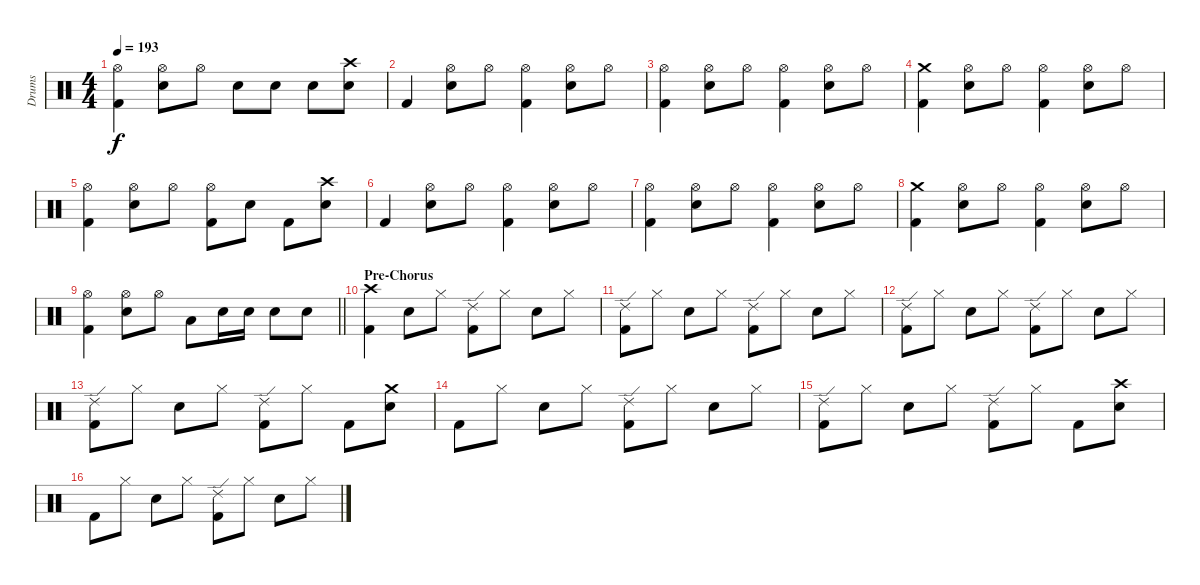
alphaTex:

\track ("Drums" "Drums") {instrument percussion}
\staff {score}
\articulation defaults
\ts (4 4)
\tempo 193
\clef neutral
\ks c
("Hi-Hat (open)" "Kick (hit) 2").4{dy f} ("Hi-Hat (open)" "Snare (hit) 2").8 "Hi-Hat (open)".8 "Snare (hit) 2".8 "Snare (hit) 2".8 "Snare (hit) 2".8 ("Crash high (hit)" "Snare (hit) 2").8 |
"Kick (hit) 2".4 ("Hi-Hat (open)" "Snare (hit) 2").8 "Hi-Hat (open)".8 ("Hi-Hat (open)" "Kick (hit) 2").4 ("Hi-Hat (open)" "Snare (hit) 2").8 "Hi-Hat (open)".8 |
("Hi-Hat (open)" "Kick (hit) 2").4 ("Hi-Hat (open)" "Snare (hit) 2").8 "Hi-Hat (open)".8 ("Hi-Hat (open)" "Kick (hit) 2").4 ("Hi-Hat (open)" "Snare (hit) 2").8 "Hi-Hat (open)".8 |
("Crash medium (hit)" "Kick (hit) 2").4 ("Hi-Hat (open)" "Snare (hit) 2").8 "Hi-Hat (open)".8 ("Hi-Hat (open)" "Kick (hit) 2").4 ("Hi-Hat (open)" "Snare (hit) 2").8 "Hi-Hat (open)".8 |
("Hi-Hat (open)" "Kick (hit) 2").4 ("Hi-Hat (open)" "Snare (hit) 2").8 "Hi-Hat (open)".8 ("Hi-Hat (open)" "Kick (hit) 2").8 "Snare (hit) 2".8 "Kick (hit) 2".8 ("Crash high (hit)" "Snare (hit) 2").8 |
"Kick (hit) 2".4 ("Hi-Hat (open)" "Snare (hit) 2").8 "Hi-Hat (open)".8 ("Hi-Hat (open)" "Kick (hit) 2").4 ("Hi-Hat (open)" "Snare (hit) 2").8 "Hi-Hat (open)".8 |
("Hi-Hat (open)" "Kick (hit) 2").4 ("Hi-Hat (open)" "Snare (hit) 2").8 "Hi-Hat (open)".8 ("Hi-Hat (open)" "Kick (hit) 2").4 ("Hi-Hat (open)" "Snare (hit) 2").8 "Hi-Hat (open)".8 |
("Crash medium (hit)" "Kick (hit) 2").4 ("Hi-Hat (open)" "Snare (hit) 2").8 "Hi-Hat (open)".8 ("Hi-Hat (open)" "Kick (hit) 2").4 ("Hi-Hat (open)" "Snare (hit) 2").8 "Hi-Hat (open)".8 |
\barLineRight lightlight
("Hi-Hat (open)" "Kick (hit) 2").4 ("Hi-Hat (open)" "Snare (hit) 2").8 "Hi-Hat (open)".8 "Low Tom (hit)".8 "Snare (hit) 2".16 "Snare (hit) 2".16 "Snare (hit) 2".8 "Snare (hit) 2".8 |
\section ("" "Pre-Chorus")
("Crash high (hit)" "Kick (hit) 2").4 "Snare (hit) 2".8 "Hi-Hat (closed)".8 ("Ride (edge) 2" "Kick (hit) 2").8 "Hi-Hat (closed)".8 "Snare (hit) 2".8 "Hi-Hat (closed)".8 |
("Ride (edge) 2" "Kick (hit) 2").8 "Hi-Hat (closed)".8 "Snare (hit) 2".8 "Hi-Hat (closed)".8 ("Ride (edge) 2" "Kick (hit) 2").8 "Hi-Hat (closed)".8 "Snare (hit) 2".8 "Hi-Hat (closed)".8 |
("Ride (edge) 2" "Kick (hit) 2").8 "Hi-Hat (closed)".8 "Snare (hit) 2".8 "Hi-Hat (closed)".8 ("Ride (edge) 2" "Kick (hit) 2").8 "Hi-Hat (closed)".8 "Snare (hit) 2".8 "Hi-Hat (closed)".8 |
("Ride (edge) 2" "Kick (hit) 2").8 "Hi-Hat (closed)".8 "Snare (hit) 2".8 "Hi-Hat (closed)".8 ("Ride (edge) 2" "Kick (hit) 2").8 "Hi-Hat (closed)".8 "Kick (hit) 2".8 ("Crash medium (hit)" "Snare (hit) 2").8 |
"Kick (hit) 2".8 "Hi-Hat (closed)".8 "Snare (hit) 2".8 "Hi-Hat (closed)".8 ("Ride (edge) 2" "Kick (hit) 2").8 "Hi-Hat (closed)".8 "Snare (hit) 2".8 "Hi-Hat (closed)".8 |
("Ride (edge) 2" "Kick (hit) 2").8 "Hi-Hat (closed)".8 "Snare (hit) 2".8 "Hi-Hat (closed)".8 ("Ride (edge) 2" "Kick (hit) 2").8 "Hi-Hat (closed)".8 "Kick (hit) 2".8 ("Crash high (hit)" "Snare (hit) 2").8 |
"Kick (hit) 2".8 "Hi-Hat (closed)".8 "Snare (hit) 2".8 "Hi-Hat (closed)".8 ("Ride (edge) 2" "Kick (hit) 2").8 "Hi-Hat (closed)".8 "Snare (hit) 2".8 "Hi-Hat (closed)".8
